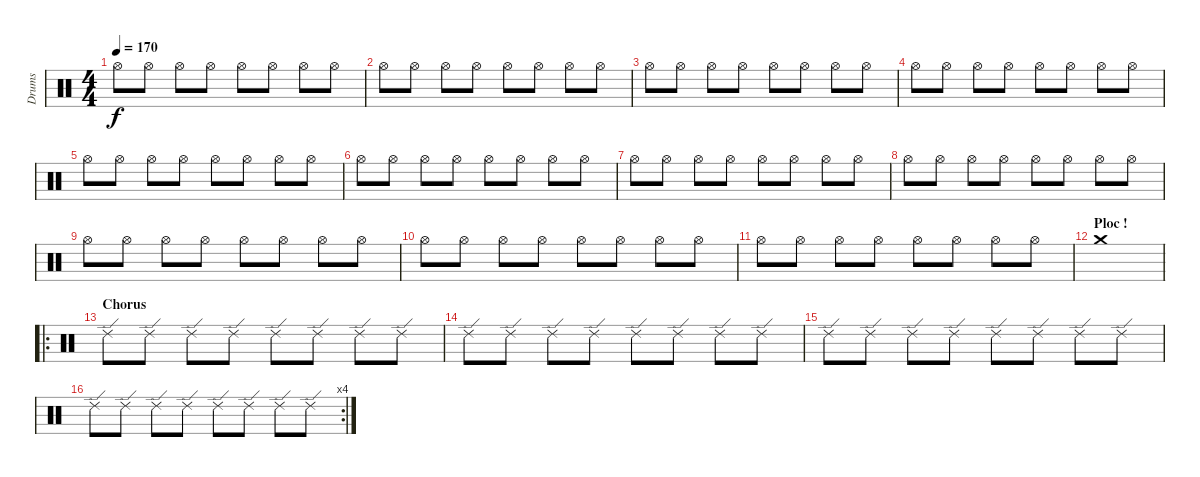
\track ("Drums" "Drums") {instrument percussion}
\staff {score}
\articulation defaults
\ts (4 4)
\tempo 170
\clef neutral
\ks c "Hi-Hat (open)".8{dy f} "Hi-Hat (open)".8 "Hi-Hat (open)".8 "Hi-Hat (open)".8 "Hi-Hat (open)".8 "Hi-Hat (open)".8 "Hi-Hat (open)".8 "Hi-Hat (open)".8
|
"Hi-Hat (open)".8 "Hi-Hat (open)".8 "Hi-Hat (open)".8 "Hi-Hat (open)".8 "Hi-Hat (open)".8 "Hi-Hat (open)".8 "Hi-Hat (open)".8 "Hi-Hat (open)".8 |
"Hi-Hat (open)".8 "Hi-Hat (open)".8 "Hi-Hat (open)".8 "Hi-Hat (open)".8 "Hi-Hat (open)".8 "Hi-Hat (open)".8 "Hi-Hat (open)".8 "Hi-Hat (open)".8 |
"Hi-Hat (open)".8 "Hi-Hat (open)".8 "Hi-Hat (open)".8 "Hi-Hat (open)".8 "Hi-Hat (open)".8 "Hi-Hat (open)".8 "Hi-Hat (open)".8 "Hi-Hat (open)".8 |
"Hi-Hat (open)".8 "Hi-Hat (open)".8 "Hi-Hat (open)".8 "Hi-Hat (open)".8 "Hi-Hat (open)".8 "Hi-Hat (open)".8 "Hi-Hat (open)".8 "Hi-Hat (open)".8 |
"Hi-Hat (open)".8 "Hi-Hat (open)".8 "Hi-Hat (open)".8 "Hi-Hat (open)".8 "Hi-Hat (open)".8 "Hi-Hat (open)".8 "Hi-Hat (open)".8 "Hi-Hat (open)".8 |
"Hi-Hat (open)".8 "Hi-Hat (open)".8 "Hi-Hat (open)".8 "Hi-Hat (open)".8 "Hi-Hat (open)".8 "Hi-Hat (open)".8 "Hi-Hat (open)".8 "Hi-Hat (open)".8 |
"Hi-Hat (open)".8 "Hi-Hat (open)".8 "Hi-Hat (open)".8 "Hi-Hat (open)".8 "Hi-Hat (open)".8 "Hi-Hat (open)".8 "Hi-Hat (open)".8 "Hi-Hat (open)".8 |
"Hi-Hat (open)".8 "Hi-Hat (open)".8 "Hi-Hat (open)".8 "Hi-Hat (open)".8 "Hi-Hat (open)".8 "Hi-Hat (open)".8 "Hi-Hat (open)".8 "Hi-Hat (open)".8 |
"Hi-Hat (open)".8 "Hi-Hat (open)".8 "Hi-Hat (open)".8 "Hi-Hat (open)".8 "Hi-Hat (open)".8 "Hi-Hat (open)".8 "Hi-Hat (open)".8 "Hi-Hat (open)".8 |
"Hi-Hat (open)".8 "Hi-Hat (open)".8 "Hi-Hat (open)".8 "Hi-Hat (open)".8 "Hi-Hat (open)".8 "Hi-Hat (open)".8 "Hi-Hat (open)".8 "Hi-Hat (open)".8 |
\section ("" "Ploc !")
"Crash medium (hit)".1 |
\ro
\section ("" "Chorus")
"Ride (edge) 2".8 "Ride (edge) 2".8 "Ride (edge) 2".8 "Ride (edge) 2".8 "Ride (edge) 2".8 "Ride (edge) 2".8 "Ride (edge) 2".8 "Ride (edge) 2".8 |
"Ride (edge) 2".8 "Ride (edge) 2".8 "Ride (edge) 2".8 "Ride (edge) 2".8 "Ride (edge) 2".8 "Ride (edge) 2".8 "Ride (edge) 2".8 "Ride (edge) 2".8 |
"Ride (edge) 2".8 "Ride (edge) 2".8 "Ride (edge) 2".8 "Ride (edge) 2".8 "Ride (edge) 2".8 "Ride (edge) 2".8 "Ride (edge) 2".8 "Ride (edge) 2".8 |
\rc 4 "Ride (edge) 2".8 "Ride (edge) 2".8 "Ride (edge) 2".8 "Ride (edge) 2".8 "Ride (edge) 2".8 "Ride (edge) 2".8 "Ride (edge) 2".8 "Ride (edge) 2".8
